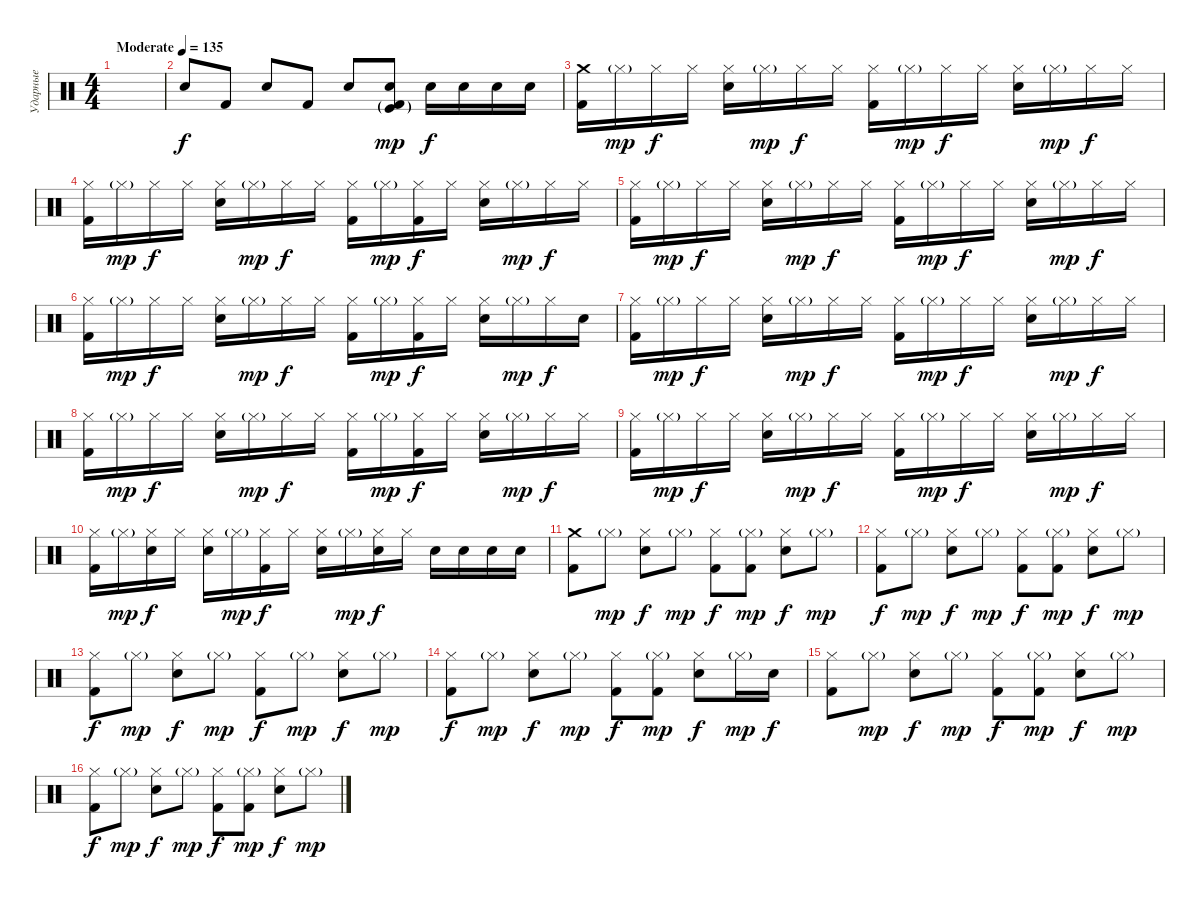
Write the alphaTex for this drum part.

\track ("Ударные" "Ударные") {instrument percussion}
\staff {score}
\articulation defaults
\ts (4 4)
\tempo (135 "Moderate")
\clef neutral
\ks c
|
"Snare (hit) 2".8 "Kick (hit) 2".8 "Snare (hit) 2".8 "Kick (hit) 2".8 "Snare (hit) 2".8 ("Kick (hit)"{g} "Snare (hit) 2" "Kick (hit) 2"{g}).8{dy mp} "Snare (hit) 2".16{dy f} "Snare (hit) 2".16 "Snare (hit) 2".16 "Snare (hit) 2".16 |
("Crash medium (hit)" "Kick (hit) 2").16 "Hi-Hat (closed)"{g}.16{dy mp} "Hi-Hat (closed)".16{dy f} "Hi-Hat (closed)".16 ("Hi-Hat (closed)" "Snare (hit) 2").16 "Hi-Hat (closed)"{g}.16{dy mp} "Hi-Hat (closed)".16{dy f} "Hi-Hat (closed)".16 ("Hi-Hat (closed)" "Kick (hit) 2").16 "Hi-Hat (closed)"{g}.16{dy mp} "Hi-Hat (closed)".16{dy f} "Hi-Hat (closed)".16 ("Hi-Hat (closed)" "Snare (hit) 2").16 "Hi-Hat (closed)"{g}.16{dy mp} "Hi-Hat (closed)".16{dy f} "Hi-Hat (closed)".16 |
("Hi-Hat (closed)" "Kick (hit) 2").16 "Hi-Hat (closed)"{g}.16{dy mp} "Hi-Hat (closed)".16{dy f} "Hi-Hat (closed)".16 ("Hi-Hat (closed)" "Snare (hit) 2").16 "Hi-Hat (closed)"{g}.16{dy mp} "Hi-Hat (closed)".16{dy f} "Hi-Hat (closed)".16 ("Hi-Hat (closed)" "Kick (hit) 2").16 "Hi-Hat (closed)"{g}.16{dy mp} ("Hi-Hat (closed)" "Kick (hit) 2").16{dy f} "Hi-Hat (closed)".16 ("Hi-Hat (closed)" "Snare (hit) 2").16 "Hi-Hat (closed)"{g}.16{dy mp} "Hi-Hat (closed)".16{dy f} "Hi-Hat (closed)".16 |
("Hi-Hat (closed)" "Kick (hit) 2").16 "Hi-Hat (closed)"{g}.16{dy mp} "Hi-Hat (closed)".16{dy f} "Hi-Hat (closed)".16 ("Hi-Hat (closed)" "Snare (hit) 2").16 "Hi-Hat (closed)"{g}.16{dy mp} "Hi-Hat (closed)".16{dy f} "Hi-Hat (closed)".16 ("Hi-Hat (closed)" "Kick (hit) 2").16 "Hi-Hat (closed)"{g}.16{dy mp} "Hi-Hat (closed)".16{dy f} "Hi-Hat (closed)".16 ("Hi-Hat (closed)" "Snare (hit) 2").16 "Hi-Hat (closed)"{g}.16{dy mp} "Hi-Hat (closed)".16{dy f} "Hi-Hat (closed)".16 |
("Hi-Hat (closed)" "Kick (hit) 2").16 "Hi-Hat (closed)"{g}.16{dy mp} "Hi-Hat (closed)".16{dy f} "Hi-Hat (closed)".16 ("Hi-Hat (closed)" "Snare (hit) 2").16 "Hi-Hat (closed)"{g}.16{dy mp} "Hi-Hat (closed)".16{dy f} "Hi-Hat (closed)".16 ("Hi-Hat (closed)" "Kick (hit) 2").16 "Hi-Hat (closed)"{g}.16{dy mp} ("Hi-Hat (closed)" "Kick (hit) 2").16{dy f} "Hi-Hat (closed)".16 ("Hi-Hat (closed)" "Snare (hit) 2").16 "Hi-Hat (closed)"{g}.16{dy mp} "Hi-Hat (closed)".16{dy f} "Snare (hit) 2".16 |
("Hi-Hat (closed)" "Kick (hit) 2").16 "Hi-Hat (closed)"{g}.16{dy mp} "Hi-Hat (closed)".16{dy f} "Hi-Hat (closed)".16 ("Hi-Hat (closed)" "Snare (hit) 2").16 "Hi-Hat (closed)"{g}.16{dy mp} "Hi-Hat (closed)".16{dy f} "Hi-Hat (closed)".16 ("Hi-Hat (closed)" "Kick (hit) 2").16 "Hi-Hat (closed)"{g}.16{dy mp} "Hi-Hat (closed)".16{dy f} "Hi-Hat (closed)".16 ("Hi-Hat (closed)" "Snare (hit) 2").16 "Hi-Hat (closed)"{g}.16{dy mp} "Hi-Hat (closed)".16{dy f} "Hi-Hat (closed)".16 |
("Hi-Hat (closed)" "Kick (hit) 2").16 "Hi-Hat (closed)"{g}.16{dy mp} "Hi-Hat (closed)".16{dy f} "Hi-Hat (closed)".16 ("Hi-Hat (closed)" "Snare (hit) 2").16 "Hi-Hat (closed)"{g}.16{dy mp} "Hi-Hat (closed)".16{dy f} "Hi-Hat (closed)".16 ("Hi-Hat (closed)" "Kick (hit) 2").16 "Hi-Hat (closed)"{g}.16{dy mp} ("Hi-Hat (closed)" "Kick (hit) 2").16{dy f} "Hi-Hat (closed)".16 ("Hi-Hat (closed)" "Snare (hit) 2").16 "Hi-Hat (closed)"{g}.16{dy mp} "Hi-Hat (closed)".16{dy f} "Hi-Hat (closed)".16 |
("Hi-Hat (closed)" "Kick (hit) 2").16 "Hi-Hat (closed)"{g}.16{dy mp} "Hi-Hat (closed)".16{dy f} "Hi-Hat (closed)".16 ("Hi-Hat (closed)" "Snare (hit) 2").16 "Hi-Hat (closed)"{g}.16{dy mp} "Hi-Hat (closed)".16{dy f} "Hi-Hat (closed)".16 ("Hi-Hat (closed)" "Kick (hit) 2").16 "Hi-Hat (closed)"{g}.16{dy mp} "Hi-Hat (closed)".16{dy f} "Hi-Hat (closed)".16 ("Hi-Hat (closed)" "Snare (hit) 2").16 "Hi-Hat (closed)"{g}.16{dy mp} "Hi-Hat (closed)".16{dy f} "Hi-Hat (closed)".16 |
("Hi-Hat (closed)" "Kick (hit) 2").16 "Hi-Hat (closed)"{g}.16{dy mp} ("Hi-Hat (closed)" "Snare (hit) 2").16{dy f} "Hi-Hat (closed)".16 ("Hi-Hat (closed)" "Snare (hit) 2").16 "Hi-Hat (closed)"{g}.16{dy mp} ("Hi-Hat (closed)" "Kick (hit) 2").16{dy f} "Hi-Hat (closed)".16 ("Hi-Hat (closed)" "Snare (hit) 2").16 "Hi-Hat (closed)"{g}.16{dy mp} ("Hi-Hat (closed)" "Snare (hit) 2").16{dy f} "Hi-Hat (closed)".16 "Snare (hit) 2".16 "Snare (hit) 2".16 "Snare (hit) 2".16 "Snare (hit) 2".16 |
("Crash medium (hit)" "Kick (hit) 2").8 "Hi-Hat (closed)"{g}.8{dy mp} ("Hi-Hat (closed)" "Snare (hit) 2").8{dy f} "Hi-Hat (closed)"{g}.8{dy mp} ("Hi-Hat (closed)" "Kick (hit) 2").8{dy f} ("Hi-Hat (closed)"{g} "Kick (hit) 2").8{dy mp} ("Hi-Hat (closed)" "Snare (hit) 2").8{dy f} "Hi-Hat (closed)"{g}.8{dy mp} |
("Hi-Hat (closed)" "Kick (hit) 2").8{dy f} "Hi-Hat (closed)"{g}.8{dy mp} ("Hi-Hat (closed)" "Snare (hit) 2").8{dy f} "Hi-Hat (closed)"{g}.8{dy mp} ("Hi-Hat (closed)" "Kick (hit) 2").8{dy f} ("Hi-Hat (closed)"{g} "Kick (hit) 2").8{dy mp} ("Hi-Hat (closed)" "Snare (hit) 2").8{dy f} "Hi-Hat (closed)"{g}.8{dy mp} |
("Hi-Hat (closed)" "Kick (hit) 2").8{dy f} "Hi-Hat (closed)"{g}.8{dy mp} ("Hi-Hat (closed)" "Snare (hit) 2").8{dy f} "Hi-Hat (closed)"{g}.8{dy mp} ("Hi-Hat (closed)" "Kick (hit) 2").8{dy f} "Hi-Hat (closed)"{g}.8{dy mp} ("Hi-Hat (closed)" "Snare (hit) 2").8{dy f} "Hi-Hat (closed)"{g}.8{dy mp} |
("Hi-Hat (closed)" "Kick (hit) 2").8{dy f} "Hi-Hat (closed)"{g}.8{dy mp} ("Hi-Hat (closed)" "Snare (hit) 2").8{dy f} "Hi-Hat (closed)"{g}.8{dy mp} ("Hi-Hat (closed)" "Kick (hit) 2").8{dy f} ("Hi-Hat (closed)"{g} "Kick (hit) 2").8{dy mp} ("Hi-Hat (closed)" "Snare (hit) 2").8{dy f} "Hi-Hat (closed)"{g}.16{dy mp} "Snare (hit) 2".16{dy f} |
("Hi-Hat (closed)" "Kick (hit) 2").8 "Hi-Hat (closed)"{g}.8{dy mp} ("Hi-Hat (closed)" "Snare (hit) 2").8{dy f} "Hi-Hat (closed)"{g}.8{dy mp} ("Hi-Hat (closed)" "Kick (hit) 2").8{dy f} ("Hi-Hat (closed)"{g} "Kick (hit) 2").8{dy mp} ("Hi-Hat (closed)" "Snare (hit) 2").8{dy f} "Hi-Hat (closed)"{g}.8{dy mp} |
("Hi-Hat (closed)" "Kick (hit) 2").8{dy f} "Hi-Hat (closed)"{g}.8{dy mp} ("Hi-Hat (closed)" "Snare (hit) 2").8{dy f} "Hi-Hat (closed)"{g}.8{dy mp} ("Hi-Hat (closed)" "Kick (hit) 2").8{dy f} ("Hi-Hat (closed)"{g} "Kick (hit) 2").8{dy mp} ("Hi-Hat (closed)" "Snare (hit) 2").8{dy f} "Hi-Hat (closed)"{g}.8{dy mp}
